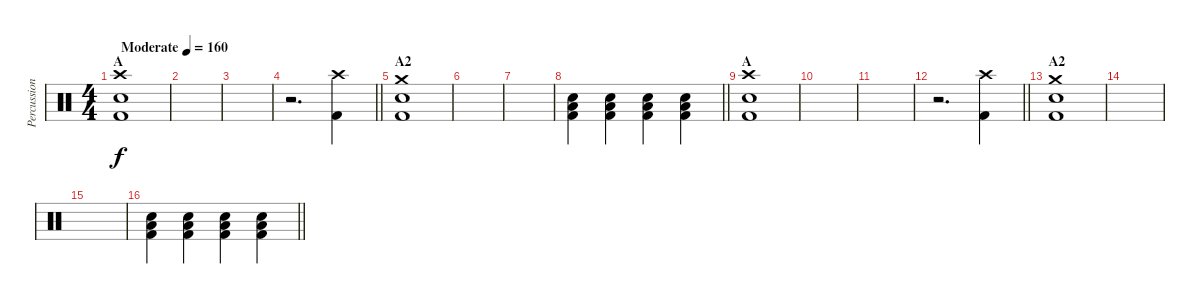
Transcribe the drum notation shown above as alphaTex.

\track ("Percussion" "Percussion") {instrument percussion}
\staff {score}
\articulation defaults
\ts (4 4)
\section ("" "A")
\tempo (160 "Moderate")
\clef neutral
\ks c
("Crash high (hit)" "Electric Snare (hit)" "Kick (hit) 2").1{dy f} |
|
|
\barLineRight lightlight
r.2{d} ("Crash high (hit)" "Kick (hit) 2").4 |
\section ("" "A2")
("Crash medium (hit)" "Electric Snare (hit)" "Kick (hit) 2").1 |
|
|
\barLineRight lightlight
("Low Floor Tom (hit)" "Electric Snare (hit)" "Kick (hit) 2").4 ("Low Floor Tom (hit)" "Electric Snare (hit)" "Kick (hit) 2").4 ("Low Floor Tom (hit)" "Electric Snare (hit)" "Kick (hit) 2").4 ("Low Floor Tom (hit)" "Electric Snare (hit)" "Kick (hit) 2").4 |
\section ("" "A")
("Crash high (hit)" "Electric Snare (hit)" "Kick (hit) 2").1 |
|
|
\barLineRight lightlight
r.2{d} ("Crash high (hit)" "Kick (hit) 2").4 |
\section ("" "A2")
("Crash medium (hit)" "Electric Snare (hit)" "Kick (hit) 2").1 |
|
|
\barLineRight lightlight
("Low Floor Tom (hit)" "Electric Snare (hit)" "Kick (hit) 2").4 ("Low Floor Tom (hit)" "Electric Snare (hit)" "Kick (hit) 2").4 ("Low Floor Tom (hit)" "Electric Snare (hit)" "Kick (hit) 2").4 ("Low Floor Tom (hit)" "Electric Snare (hit)" "Kick (hit) 2").4
